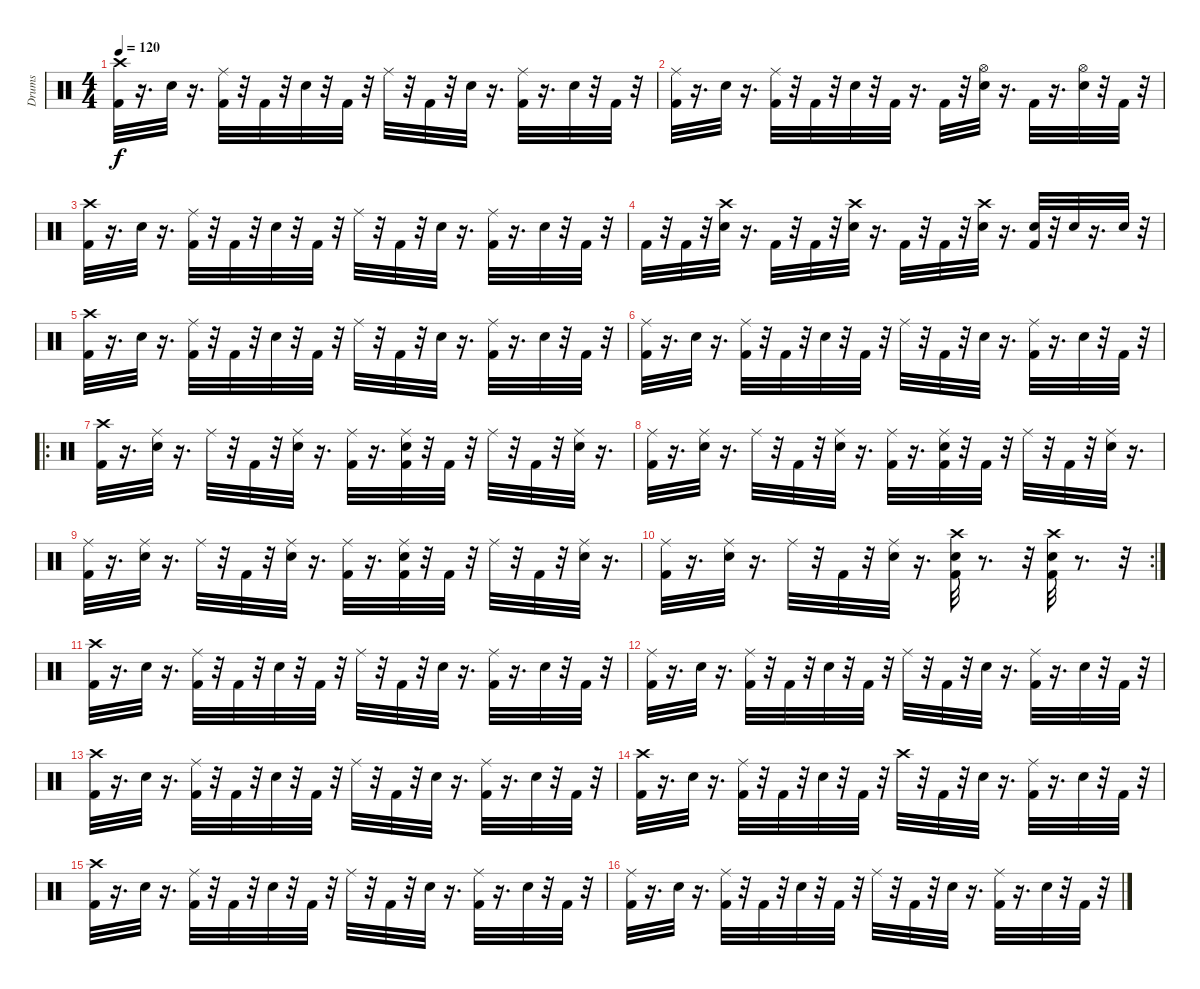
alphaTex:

\track ("Drums" "Drums") {instrument percussion}
\staff {score}
\articulation defaults
\ts (4 4)
\tempo 120
\clef neutral
\ks c
("Crash high (hit)" "Kick (hit) 2").32{dy f} r.16{d} "Snare (hit) 2".32 r.16{d} ("Kick (hit) 2" "Ride (middle)").32 r.32 "Kick (hit) 2".32 r.32 "Snare (hit) 2".32 r.32 "Kick (hit) 2".32 r.32 "Ride (middle)".32 r.32 "Kick (hit) 2".32 r.32 "Snare (hit) 2".32 r.16{d} ("Kick (hit) 2" "Ride (middle)").32 r.16{d} "Snare (hit) 2".32 r.32 "Kick (hit) 2".32 r.32 |
("Ride (middle)" "Kick (hit) 2").32 r.16{d} "Snare (hit) 2".32 r.16{d} ("Kick (hit) 2" "Ride (middle)").32 r.32 "Kick (hit) 2".32 r.32 "Snare (hit) 2".32 r.32 "Kick (hit) 2".32 r.16{d} "Kick (hit) 2".32 r.32 ("Hi-Hat (open)" "Snare (hit) 2").32 r.16{d} "Kick (hit) 2".32 r.16{d} ("Hi-Hat (open)" "Snare (hit) 2").32 r.32 "Kick (hit) 2".32 r.32 |
("Crash high (hit)" "Kick (hit) 2").32 r.16{d} "Snare (hit) 2".32 r.16{d} ("Kick (hit) 2" "Ride (middle)").32 r.32 "Kick (hit) 2".32 r.32 "Snare (hit) 2".32 r.32 "Kick (hit) 2".32 r.32 "Ride (middle)".32 r.32 "Kick (hit) 2".32 r.32 "Snare (hit) 2".32 r.16{d} ("Kick (hit) 2" "Ride (middle)").32 r.16{d} "Snare (hit) 2".32 r.32 "Kick (hit) 2".32 r.32 |
"Kick (hit) 2".32 r.32 "Kick (hit) 2".32 r.32 ("Crash high (hit)" "Snare (hit) 2").32 r.16{d} "Kick (hit) 2".32 r.32 "Kick (hit) 2".32 r.32 ("Crash high (hit)" "Snare (hit) 2").32 r.16{d} "Kick (hit) 2".32 r.32 "Kick (hit) 2".32 r.32 ("Crash high (hit)" "Snare (hit) 2").32 r.16{d} ("Kick (hit) 2" "Snare (hit) 2").32 r.32 "Snare (hit) 2".32 r.16{d} "Snare (hit) 2".32 r.32 |
("Crash high (hit)" "Kick (hit) 2").32 r.16{d} "Snare (hit) 2".32 r.16{d} ("Kick (hit) 2" "Ride (middle)").32 r.32 "Kick (hit) 2".32 r.32 "Snare (hit) 2".32 r.32 "Kick (hit) 2".32 r.32 "Ride (middle)".32 r.32 "Kick (hit) 2".32 r.32 "Snare (hit) 2".32 r.16{d} ("Kick (hit) 2" "Ride (middle)").32 r.16{d} "Snare (hit) 2".32 r.32 "Kick (hit) 2".32 r.32 |
("Ride (middle)" "Kick (hit) 2").32 r.16{d} "Snare (hit) 2".32 r.16{d} ("Kick (hit) 2" "Ride (middle)").32 r.32 "Kick (hit) 2".32 r.32 "Snare (hit) 2".32 r.32 "Kick (hit) 2".32 r.32 "Ride (middle)".32 r.32 "Kick (hit) 2".32 r.32 "Snare (hit) 2".32 r.16{d} ("Ride (middle)" "Kick (hit) 2").32 r.16{d} "Snare (hit) 2".32 r.32 "Kick (hit) 2".32 r.32 |
\ro
("Kick (hit) 2" "Crash high (hit)").32 r.16{d} ("Snare (hit) 2" "Ride (middle)").32 r.16{d} "Ride (middle)".32 r.32 "Kick (hit) 2".32 r.32 ("Snare (hit) 2" "Ride (middle)").32 r.16{d} ("Kick (hit) 2" "Ride (middle)").32 r.16{d} ("Ride (middle)" "Kick (hit) 2" "Snare (hit) 2").32 r.32 "Kick (hit) 2".32 r.32 "Ride (middle)".32 r.32 "Kick (hit) 2".32 r.32 ("Snare (hit) 2" "Ride (middle)").32 r.16{d} |
("Ride (middle)" "Kick (hit) 2").32 r.16{d} ("Snare (hit) 2" "Ride (middle)").32 r.16{d} "Ride (middle)".32 r.32 "Kick (hit) 2".32 r.32 ("Snare (hit) 2" "Ride (middle)").32 r.16{d} ("Kick (hit) 2" "Ride (middle)").32 r.16{d} ("Ride (middle)" "Kick (hit) 2" "Snare (hit) 2").32 r.32 "Kick (hit) 2".32 r.32 "Ride (middle)".32 r.32 "Kick (hit) 2".32 r.32 ("Snare (hit) 2" "Ride (middle)").32 r.16{d} |
("Ride (middle)" "Kick (hit) 2").32 r.16{d} ("Snare (hit) 2" "Ride (middle)").32 r.16{d} "Ride (middle)".32 r.32 "Kick (hit) 2".32 r.32 ("Snare (hit) 2" "Ride (middle)").32 r.16{d} ("Kick (hit) 2" "Ride (middle)").32 r.16{d} ("Ride (middle)" "Kick (hit) 2" "Snare (hit) 2").32 r.32 "Kick (hit) 2".32 r.32 "Ride (middle)".32 r.32 "Kick (hit) 2".32 r.32 ("Snare (hit) 2" "Ride (middle)").32 r.16{d} |
\rc 2
("Ride (middle)" "Kick (hit) 2").32 r.16{d} ("Snare (hit) 2" "Ride (middle)").32 r.16{d} "Ride (middle)".32 r.32 "Kick (hit) 2".32 r.32 ("Snare (hit) 2" "Ride (middle)").32 r.16{d} ("Kick (hit) 2" "Snare (hit) 2" "Crash high (hit)").32 r.8{d} r.32 ("Crash high (hit)" "Kick (hit) 2" "Snare (hit) 2").32 r.8{d} r.32 |
("Kick (hit) 2" "Crash high (hit)").32 r.16{d} "Snare (hit) 2".32 r.16{d} ("Kick (hit) 2" "Ride (middle)").32 r.32 "Kick (hit) 2".32 r.32 "Snare (hit) 2".32 r.32 "Kick (hit) 2".32 r.32 "Ride (middle)".32 r.32 "Kick (hit) 2".32 r.32 "Snare (hit) 2".32 r.16{d} ("Kick (hit) 2" "Ride (middle)").32 r.16{d} "Snare (hit) 2".32 r.32 "Kick (hit) 2".32 r.32 |
("Ride (middle)" "Kick (hit) 2").32 r.16{d} "Snare (hit) 2".32 r.16{d} ("Kick (hit) 2" "Ride (middle)").32 r.32 "Kick (hit) 2".32 r.32 "Snare (hit) 2".32 r.32 "Kick (hit) 2".32 r.32 "Ride (middle)".32 r.32 "Kick (hit) 2".32 r.32 "Snare (hit) 2".32 r.16{d} ("Kick (hit) 2" "Ride (middle)").32 r.16{d} "Snare (hit) 2".32 r.32 "Kick (hit) 2".32 r.32 |
("Crash high (hit)" "Kick (hit) 2").32 r.16{d} "Snare (hit) 2".32 r.16{d} ("Kick (hit) 2" "Ride (middle)").32 r.32 "Kick (hit) 2".32 r.32 "Snare (hit) 2".32 r.32 "Kick (hit) 2".32 r.32 "Ride (middle)".32 r.32 "Kick (hit) 2".32 r.32 "Snare (hit) 2".32 r.16{d} ("Kick (hit) 2" "Ride (middle)").32 r.16{d} "Snare (hit) 2".32 r.32 "Kick (hit) 2".32 r.32 |
("Crash high (hit)" "Kick (hit) 2").32 r.16{d} "Snare (hit) 2".32 r.16{d} ("Kick (hit) 2" "Ride (middle)").32 r.32 "Kick (hit) 2".32 r.32 "Snare (hit) 2".32 r.32 "Kick (hit) 2".32 r.32 "Crash high (hit)".32 r.32 "Kick (hit) 2".32 r.32 "Snare (hit) 2".32 r.16{d} ("Kick (hit) 2" "Ride (middle)").32 r.16{d} "Snare (hit) 2".32 r.32 "Kick (hit) 2".32 r.32 |
("Kick (hit) 2" "Crash high (hit)").32 r.16{d} "Snare (hit) 2".32 r.16{d} ("Kick (hit) 2" "Ride (middle)").32 r.32 "Kick (hit) 2".32 r.32 "Snare (hit) 2".32 r.32 "Kick (hit) 2".32 r.32 "Ride (middle)".32 r.32 "Kick (hit) 2".32 r.32 "Snare (hit) 2".32 r.16{d} ("Kick (hit) 2" "Ride (middle)").32 r.16{d} "Snare (hit) 2".32 r.32 "Kick (hit) 2".32 r.32 |
("Ride (middle)" "Kick (hit) 2").32 r.16{d} "Snare (hit) 2".32 r.16{d} ("Kick (hit) 2" "Ride (middle)").32 r.32 "Kick (hit) 2".32 r.32 "Snare (hit) 2".32 r.32 "Kick (hit) 2".32 r.32 "Ride (middle)".32 r.32 "Kick (hit) 2".32 r.32 "Snare (hit) 2".32 r.16{d} ("Kick (hit) 2" "Ride (middle)").32 r.16{d} "Snare (hit) 2".32 r.32 "Kick (hit) 2".32 r.32
